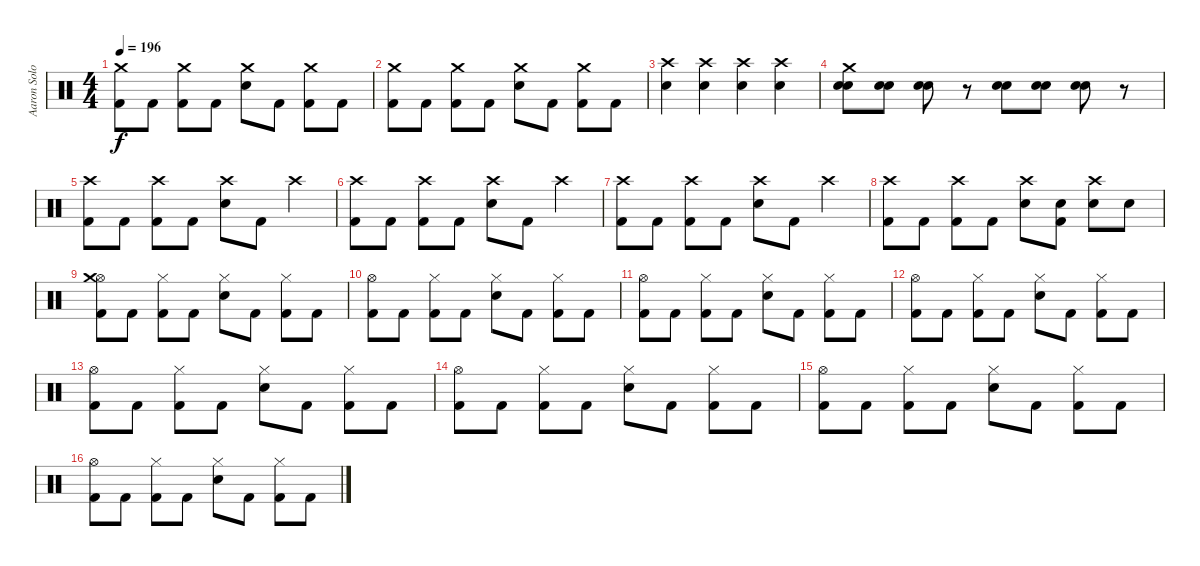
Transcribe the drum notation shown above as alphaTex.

\track ("Aaron Solowoniuk" "Aaron Solo") {instrument percussion}
\staff {score}
\articulation defaults
\ts (4 4)
\tempo 196
\clef neutral
\ks c
("Crash medium (hit)" "Kick (hit) 2").8{dy f} "Kick (hit) 2".8 ("Crash medium (hit)" "Kick (hit) 2").8 "Kick (hit) 2".8 ("Crash medium (hit)" "Electric Snare (hit)").8 "Kick (hit) 2".8 ("Crash medium (hit)" "Kick (hit) 2").8 "Kick (hit) 2".8 |
("Crash medium (hit)" "Kick (hit) 2").8 "Kick (hit) 2".8 ("Crash medium (hit)" "Kick (hit) 2").8 "Kick (hit) 2".8 ("Crash medium (hit)" "Electric Snare (hit)").8 "Kick (hit) 2".8 ("Crash medium (hit)" "Kick (hit) 2").8 "Kick (hit) 2".8 |
("Crash high (hit)" "Electric Snare (hit)").4 ("Crash high (hit)" "Electric Snare (hit)").4 ("Crash high (hit)" "Electric Snare (hit)").4 ("Crash high (hit)" "Electric Snare (hit)").4 |
("Crash medium (hit)" "Electric Snare (hit)" "Electric Snare (hit)").8 ("Electric Snare (hit)" "Electric Snare (hit)").8 ("Electric Snare (hit)" "Electric Snare (hit)").8 r.8 ("Electric Snare (hit)" "Electric Snare (hit)").8 ("Electric Snare (hit)" "Electric Snare (hit)").8 ("Electric Snare (hit)" "Electric Snare (hit)").8 r.8 |
("Crash high (hit)" "Kick (hit) 2").8 "Kick (hit) 2".8 ("Crash high (hit)" "Kick (hit) 2").8 "Kick (hit) 2".8 ("Crash high (hit)" "Electric Snare (hit)").8 "Kick (hit) 2".8 "Crash high (hit)".4 |
("Crash high (hit)" "Kick (hit) 2").8 "Kick (hit) 2".8 ("Crash high (hit)" "Kick (hit) 2").8 "Kick (hit) 2".8 ("Crash high (hit)" "Electric Snare (hit)").8 "Kick (hit) 2".8 "Crash high (hit)".4 |
("Crash high (hit)" "Kick (hit) 2").8 "Kick (hit) 2".8 ("Crash high (hit)" "Kick (hit) 2").8 "Kick (hit) 2".8 ("Crash high (hit)" "Electric Snare (hit)").8 "Kick (hit) 2".8 "Crash high (hit)".4 |
("Crash high (hit)" "Kick (hit) 2").8 "Kick (hit) 2".8 ("Crash high (hit)" "Kick (hit) 2").8 "Kick (hit) 2".8 ("Crash high (hit)" "Electric Snare (hit)").8 ("Electric Snare (hit)" "Kick (hit) 2").8 ("Crash high (hit)" "Electric Snare (hit)").8 "Electric Snare (hit)".8 |
("Hi-Hat (open)" "Kick (hit) 2" "Crash medium (hit)").8 "Kick (hit) 2".8 ("Hi-Hat (closed)" "Kick (hit) 2").8 "Kick (hit) 2".8 ("Hi-Hat (closed)" "Electric Snare (hit)").8 "Kick (hit) 2".8 ("Hi-Hat (closed)" "Kick (hit) 2").8 "Kick (hit) 2".8 |
("Hi-Hat (open)" "Kick (hit) 2").8 "Kick (hit) 2".8 ("Hi-Hat (closed)" "Kick (hit) 2").8 "Kick (hit) 2".8 ("Hi-Hat (closed)" "Electric Snare (hit)").8 "Kick (hit) 2".8 ("Hi-Hat (closed)" "Kick (hit) 2").8 "Kick (hit) 2".8 |
("Hi-Hat (open)" "Kick (hit) 2").8 "Kick (hit) 2".8 ("Hi-Hat (closed)" "Kick (hit) 2").8 "Kick (hit) 2".8 ("Hi-Hat (closed)" "Electric Snare (hit)").8 "Kick (hit) 2".8 ("Hi-Hat (closed)" "Kick (hit) 2").8 "Kick (hit) 2".8 |
("Hi-Hat (open)" "Kick (hit) 2").8 "Kick (hit) 2".8 ("Hi-Hat (closed)" "Kick (hit) 2").8 "Kick (hit) 2".8 ("Hi-Hat (closed)" "Electric Snare (hit)").8 "Kick (hit) 2".8 ("Hi-Hat (closed)" "Kick (hit) 2").8 "Kick (hit) 2".8 |
("Hi-Hat (open)" "Kick (hit) 2").8 "Kick (hit) 2".8 ("Hi-Hat (closed)" "Kick (hit) 2").8 "Kick (hit) 2".8 ("Hi-Hat (closed)" "Electric Snare (hit)").8 "Kick (hit) 2".8 ("Hi-Hat (closed)" "Kick (hit) 2").8 "Kick (hit) 2".8 |
("Hi-Hat (open)" "Kick (hit) 2").8 "Kick (hit) 2".8 ("Hi-Hat (closed)" "Kick (hit) 2").8 "Kick (hit) 2".8 ("Hi-Hat (closed)" "Electric Snare (hit)").8 "Kick (hit) 2".8 ("Hi-Hat (closed)" "Kick (hit) 2").8 "Kick (hit) 2".8 |
("Hi-Hat (open)" "Kick (hit) 2").8 "Kick (hit) 2".8 ("Hi-Hat (closed)" "Kick (hit) 2").8 "Kick (hit) 2".8 ("Hi-Hat (closed)" "Electric Snare (hit)").8 "Kick (hit) 2".8 ("Hi-Hat (closed)" "Kick (hit) 2").8 "Kick (hit) 2".8 |
("Hi-Hat (open)" "Kick (hit) 2").8 "Kick (hit) 2".8 ("Hi-Hat (closed)" "Kick (hit) 2").8 "Kick (hit) 2".8 ("Hi-Hat (closed)" "Electric Snare (hit)").8 "Kick (hit) 2".8 ("Hi-Hat (closed)" "Kick (hit) 2").8 "Kick (hit) 2".8
